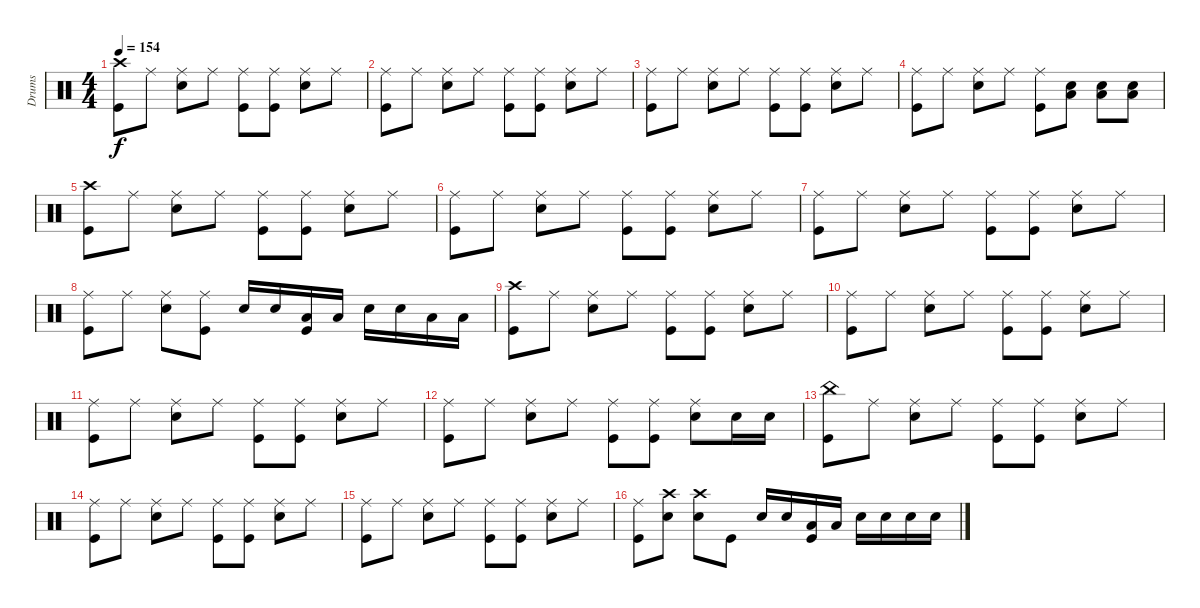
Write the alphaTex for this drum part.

\track ("Drums" "Drums") {instrument percussion}
\staff {score}
\articulation defaults
\ts (4 4)
\tempo 154
\clef neutral
\ks c
("Kick (hit)" "Crash high (hit)").8{dy f} "Ride (middle)".8 ("Snare (hit) 2" "Ride (middle)").8 "Ride (middle)".8 ("Kick (hit)" "Ride (middle)").8 ("Ride (middle)" "Kick (hit)").8 ("Snare (hit) 2" "Ride (middle)").8 "Ride (middle)".8 |
("Kick (hit)" "Ride (middle)").8 "Ride (middle)".8 ("Snare (hit) 2" "Ride (middle)").8 "Ride (middle)".8 ("Kick (hit)" "Ride (middle)").8 ("Ride (middle)" "Kick (hit)").8 ("Snare (hit) 2" "Ride (middle)").8 "Ride (middle)".8 |
("Kick (hit)" "Ride (middle)").8 "Ride (middle)".8 ("Snare (hit) 2" "Ride (middle)").8 "Ride (middle)".8 ("Kick (hit)" "Ride (middle)").8 ("Ride (middle)" "Kick (hit)").8 ("Snare (hit) 2" "Ride (middle)").8 "Ride (middle)".8 |
("Kick (hit)" "Ride (middle)").8 "Ride (middle)".8 ("Snare (hit) 2" "Ride (middle)").8 "Ride (middle)".8 ("Kick (hit)" "Ride (middle)").8 ("Low Floor Tom (hit)" "Snare (hit) 2").8 ("Low Floor Tom (hit)" "Snare (hit) 2").8 ("Low Floor Tom (hit)" "Snare (hit) 2").8 |
("Crash high (hit)" "Kick (hit)").8 "Ride (middle)".8 ("Snare (hit) 2" "Ride (middle)").8 "Ride (middle)".8 ("Kick (hit)" "Ride (middle)").8 ("Ride (middle)" "Kick (hit)").8 ("Snare (hit) 2" "Ride (middle)").8 "Ride (middle)".8 |
("Kick (hit)" "Ride (middle)").8 "Ride (middle)".8 ("Snare (hit) 2" "Ride (middle)").8 "Ride (middle)".8 ("Kick (hit)" "Ride (middle)").8 ("Ride (middle)" "Kick (hit)").8 ("Snare (hit) 2" "Ride (middle)").8 "Ride (middle)".8 |
("Kick (hit)" "Ride (middle)").8 "Ride (middle)".8 ("Snare (hit) 2" "Ride (middle)").8 "Ride (middle)".8 ("Kick (hit)" "Ride (middle)").8 ("Ride (middle)" "Kick (hit)").8 ("Snare (hit) 2" "Ride (middle)").8 "Ride (middle)".8 |
("Kick (hit)" "Ride (middle)").8 "Ride (middle)".8 ("Snare (hit) 2" "Ride (middle)").8 ("Ride (middle)" "Kick (hit)").8 "Snare (hit) 2".16 "Snare (hit) 2".16 ("Low Tom (hit)" "Kick (hit)").16 "Low Tom (hit)".16 "Snare (hit) 2".16 "Snare (hit) 2".16 "Low Tom (hit)".16 "Low Tom (hit)".16 |
("Kick (hit)" "Crash high (hit)").8 "Ride (middle)".8 ("Snare (hit) 2" "Ride (middle)").8 "Ride (middle)".8 ("Kick (hit)" "Ride (middle)").8 ("Kick (hit)" "Ride (middle)").8 ("Snare (hit) 2" "Ride (middle)").8 "Ride (middle)".8 |
("Kick (hit)" "Ride (middle)").8 "Ride (middle)".8 ("Snare (hit) 2" "Ride (middle)").8 "Ride (middle)".8 ("Kick (hit)" "Ride (middle)").8 ("Kick (hit)" "Ride (middle)").8 ("Snare (hit) 2" "Ride (middle)").8 "Ride (middle)".8 |
("Kick (hit)" "Ride (middle)").8 "Ride (middle)".8 ("Snare (hit) 2" "Ride (middle)").8 "Ride (middle)".8 ("Kick (hit)" "Ride (middle)").8 ("Ride (middle)" "Kick (hit)").8 ("Snare (hit) 2" "Ride (middle)").8 "Ride (middle)".8 |
("Kick (hit)" "Ride (middle)").8 "Ride (middle)".8 ("Snare (hit) 2" "Ride (middle)").8 "Ride (middle)".8 ("Kick (hit)" "Ride (middle)").8 ("Ride (middle)" "Kick (hit)").8 ("Snare (hit) 2" "Ride (middle)").8 "Snare (hit) 2".16 "Snare (hit) 2".16 |
("Kick (hit)" "China (hit)").8 "Ride (middle)".8 ("Snare (hit) 2" "Ride (middle)").8 "Ride (middle)".8 ("Kick (hit)" "Ride (middle)").8 ("Kick (hit)" "Ride (middle)").8 ("Snare (hit) 2" "Ride (middle)").8 "Ride (middle)".8 |
("Kick (hit)" "Ride (middle)").8 "Ride (middle)".8 ("Snare (hit) 2" "Ride (middle)").8 "Ride (middle)".8 ("Kick (hit)" "Ride (middle)").8 ("Kick (hit)" "Ride (middle)").8 ("Snare (hit) 2" "Ride (middle)").8 "Ride (middle)".8 |
("Kick (hit)" "Ride (middle)").8 "Ride (middle)".8 ("Snare (hit) 2" "Ride (middle)").8 "Ride (middle)".8 ("Kick (hit)" "Ride (middle)").8 ("Ride (middle)" "Kick (hit)").8 ("Snare (hit) 2" "Ride (middle)").8 "Ride (middle)".8 |
("Kick (hit)" "Ride (middle)").8 ("Crash high (hit)" "Snare (hit) 2").8 ("Crash high (hit)" "Snare (hit) 2").8 "Kick (hit)".8 "Snare (hit) 2".16 "Snare (hit) 2".16 ("Low Tom (hit)" "Kick (hit)").16 "Low Tom (hit)".16 "Snare (hit) 2".16 "Snare (hit) 2".16 "Snare (hit) 2".16 "Snare (hit) 2".16
